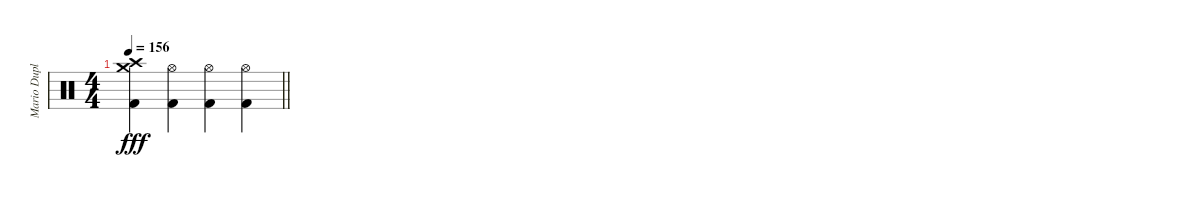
\track ("Mario Duplantier" "Mario Dupl") {instrument percussion}
\staff {score}
\articulation defaults
\ts (4 4)
\tempo 156
\clef neutral
\barLineRight lightlight
\ks c
("Crash medium (hit)" "Crash high (hit)" "Kick (hit) 2").4{dy fff} ("Hi-Hat (open)" "Kick (hit) 2").4 ("Hi-Hat (open)" "Kick (hit) 2").4 ("Hi-Hat (open)" "Kick (hit) 2").4
